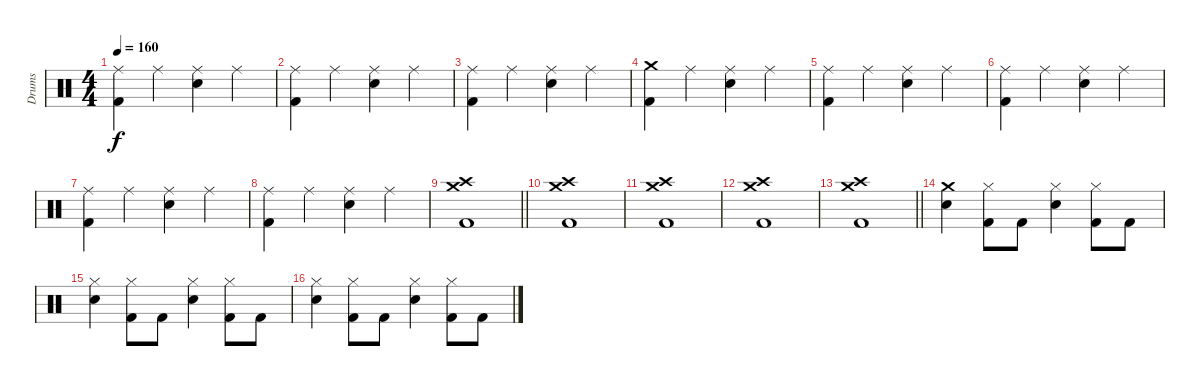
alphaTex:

\track ("Drums" "Drums") {instrument percussion}
\staff {score}
\articulation defaults
\ts (4 4)
\tempo 160
\clef neutral
\ks c
("Ride (middle)" "Kick (hit) 2").4{dy f} "Ride (middle)".4 ("Ride (middle)" "Electric Snare (hit)").4 "Ride (middle)".4 |
("Ride (middle)" "Kick (hit) 2").4 "Ride (middle)".4 ("Ride (middle)" "Electric Snare (hit)").4 "Ride (middle)".4 |
("Ride (middle)" "Kick (hit) 2").4 "Ride (middle)".4 ("Ride (middle)" "Electric Snare (hit)").4 "Ride (middle)".4 |
("Crash medium (hit)" "Kick (hit) 2").4 "Ride (middle)".4 ("Ride (middle)" "Electric Snare (hit)").4 "Ride (middle)".4 |
("Ride (middle)" "Kick (hit) 2").4 "Ride (middle)".4 ("Ride (middle)" "Electric Snare (hit)").4 "Ride (middle)".4 |
("Ride (middle)" "Kick (hit) 2").4 "Ride (middle)".4 ("Ride (middle)" "Electric Snare (hit)").4 "Ride (middle)".4 |
("Ride (middle)" "Kick (hit) 2").4 "Ride (middle)".4 ("Ride (middle)" "Electric Snare (hit)").4 "Ride (middle)".4 |
("Ride (middle)" "Kick (hit) 2").4 "Ride (middle)".4 ("Ride (middle)" "Electric Snare (hit)").4 "Ride (middle)".4 |
\barLineRight lightlight
("Crash medium (hit)" "Crash high (hit)" "Kick (hit) 2").1 |
\section ("" "")
("Crash medium (hit)" "Crash high (hit)" "Kick (hit) 2").1 |
("Crash medium (hit)" "Crash high (hit)" "Kick (hit) 2").1 |
("Crash medium (hit)" "Crash high (hit)" "Kick (hit) 2").1 |
\barLineRight lightlight
("Crash medium (hit)" "Crash high (hit)" "Kick (hit) 2").1 |
\section ("" "")
("Crash medium (hit)" "Electric Snare (hit)").4 ("Hi-Hat (closed)" "Kick (hit) 2").8 "Kick (hit) 2".8 ("Hi-Hat (closed)" "Electric Snare (hit)").4 ("Hi-Hat (closed)" "Kick (hit) 2").8 "Kick (hit) 2".8 |
("Hi-Hat (closed)" "Electric Snare (hit)").4 ("Hi-Hat (closed)" "Kick (hit) 2").8 "Kick (hit) 2".8 ("Hi-Hat (closed)" "Electric Snare (hit)").4 ("Hi-Hat (closed)" "Kick (hit) 2").8 "Kick (hit) 2".8 |
("Hi-Hat (closed)" "Electric Snare (hit)").4 ("Hi-Hat (closed)" "Kick (hit) 2").8 "Kick (hit) 2".8 ("Hi-Hat (closed)" "Electric Snare (hit)").4 ("Hi-Hat (closed)" "Kick (hit) 2").8 "Kick (hit) 2".8
